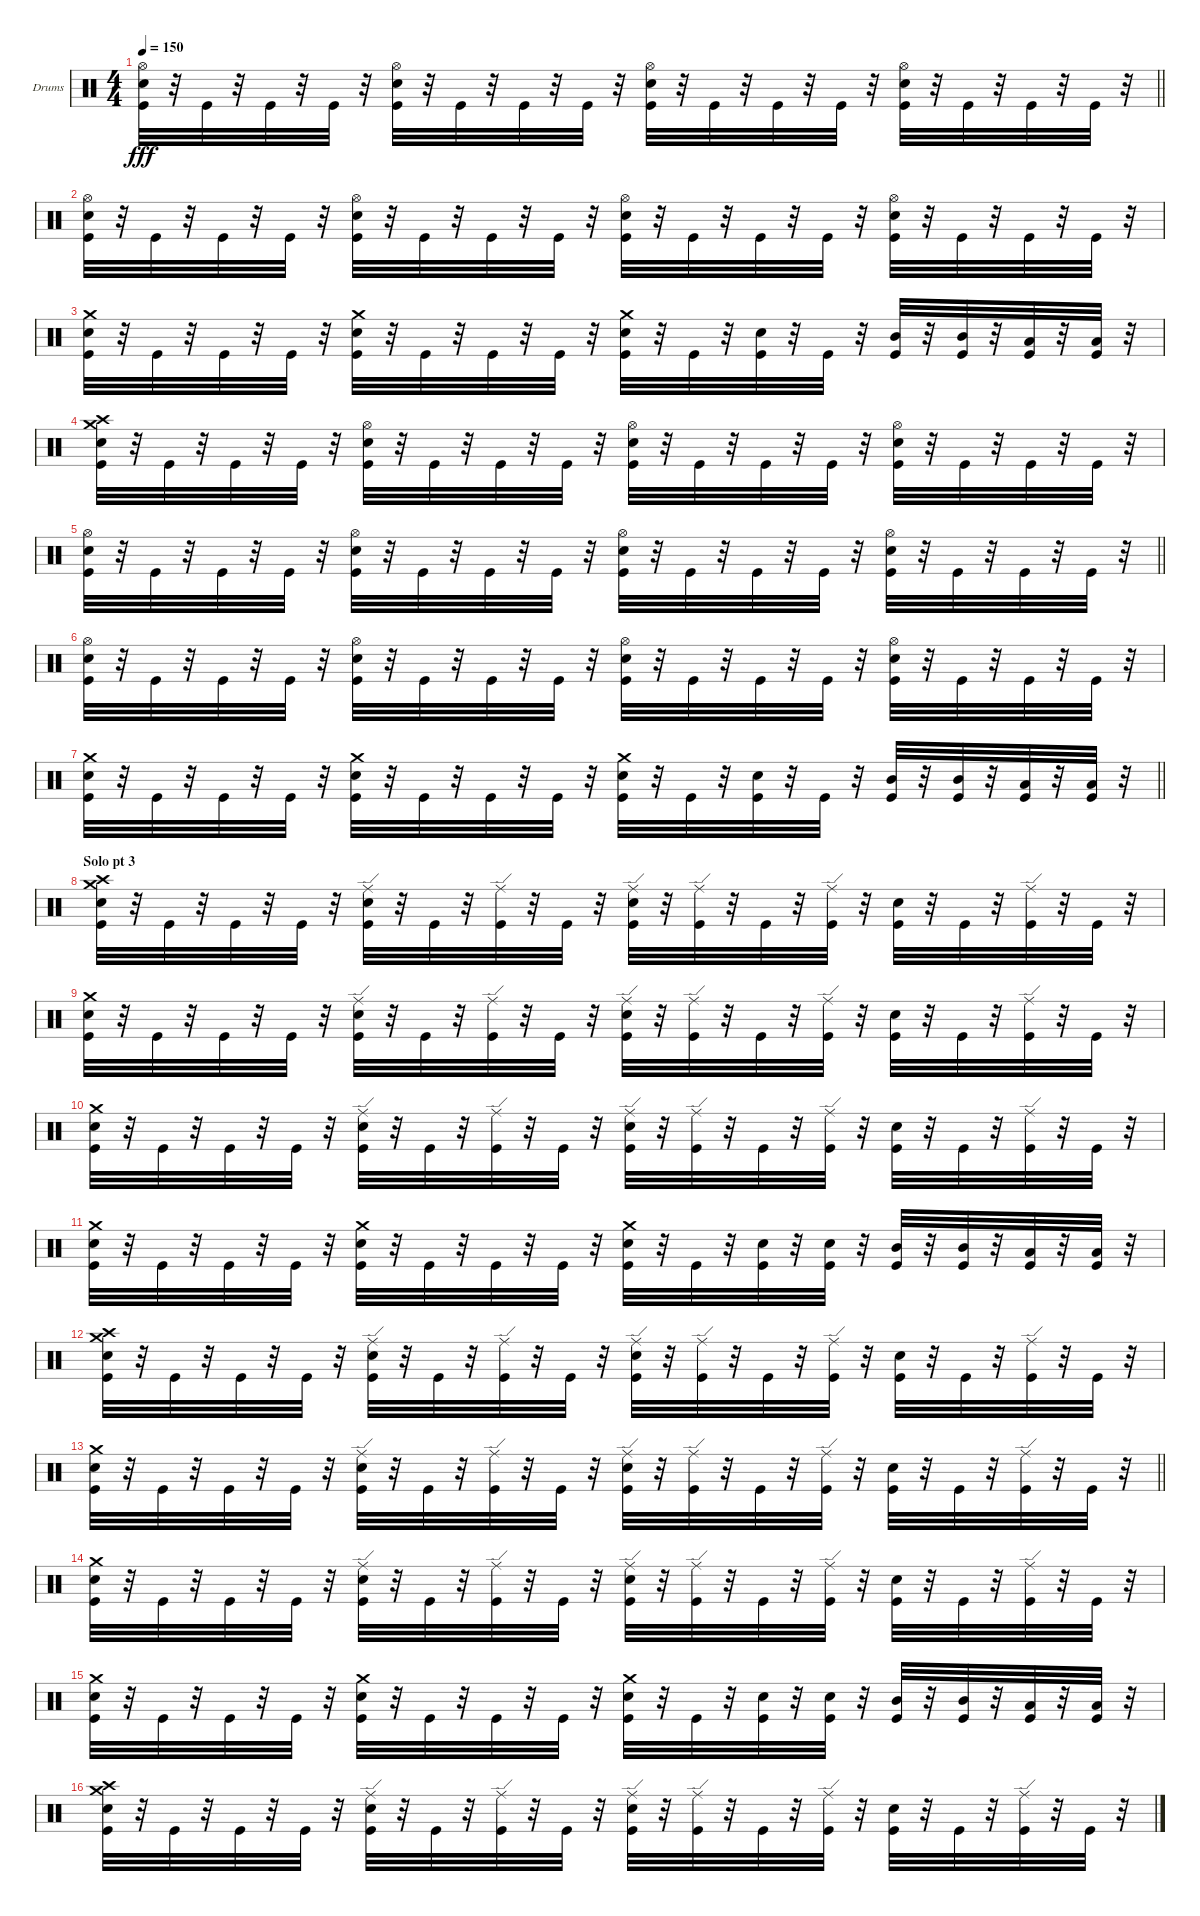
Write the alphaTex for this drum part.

\bracketExtendMode groupsimilarinstruments
\firstSystemTrackNameOrientation horizontal
\otherSystemsTrackNameOrientation horizontal
\track ("Dave McClain" "Drums") {mute instrument percussion}
\staff {score}
\articulation defaults
\ts (4 4)
\tempo 150
\clef neutral
\barLineRight lightlight
\ks c
("Hi-Hat (open)" "Snare (hit) 2" "Kick (hit)").32{dy fff} r.32 "Kick (hit)".32 r.32 "Kick (hit)".32 r.32 "Kick (hit)".32 r.32 ("Hi-Hat (open)" "Snare (hit) 2" "Kick (hit)").32 r.32 "Kick (hit)".32 r.32 "Kick (hit)".32 r.32 "Kick (hit)".32 r.32 ("Hi-Hat (open)" "Snare (hit) 2" "Kick (hit)").32 r.32 "Kick (hit)".32 r.32 "Kick (hit)".32 r.32 "Kick (hit)".32 r.32 ("Hi-Hat (open)" "Snare (hit) 2" "Kick (hit)").32 r.32 "Kick (hit)".32 r.32 "Kick (hit)".32 r.32 "Kick (hit)".32 r.32 |
("Hi-Hat (open)" "Snare (hit) 2" "Kick (hit)").32 r.32 "Kick (hit)".32 r.32 "Kick (hit)".32 r.32 "Kick (hit)".32 r.32 ("Hi-Hat (open)" "Snare (hit) 2" "Kick (hit)").32 r.32 "Kick (hit)".32 r.32 "Kick (hit)".32 r.32 "Kick (hit)".32 r.32 ("Hi-Hat (open)" "Snare (hit) 2" "Kick (hit)").32 r.32 "Kick (hit)".32 r.32 "Kick (hit)".32 r.32 "Kick (hit)".32 r.32 ("Hi-Hat (open)" "Snare (hit) 2" "Kick (hit)").32 r.32 "Kick (hit)".32 r.32 "Kick (hit)".32 r.32 "Kick (hit)".32 r.32 |
("Crash medium (hit)" "Snare (hit) 2" "Kick (hit)").32 r.32 "Kick (hit)".32 r.32 "Kick (hit)".32 r.32 "Kick (hit)".32 r.32 ("Crash medium (hit)" "Snare (hit) 2" "Kick (hit)").32 r.32 "Kick (hit)".32 r.32 "Kick (hit)".32 r.32 "Kick (hit)".32 r.32 ("Snare (hit) 2" "Crash medium (hit)" "Kick (hit)").32 r.32 "Kick (hit)".32 r.32 ("Snare (hit) 2" "Kick (hit)").32 r.32 "Kick (hit)".32 r.32 ("Mid Tom (hit)" "Kick (hit)").32 r.32 ("Mid Tom (hit)" "Kick (hit)").32 r.32 ("Low Tom (hit)" "Kick (hit)").32 r.32 ("Low Tom (hit)" "Kick (hit)").32 r.32 |
("Snare (hit) 2" "Crash medium (hit)" "Crash high (hit)" "Kick (hit)").32 r.32 "Kick (hit)".32 r.32 "Kick (hit)".32 r.32 "Kick (hit)".32 r.32 ("Hi-Hat (open)" "Snare (hit) 2" "Kick (hit)").32 r.32 "Kick (hit)".32 r.32 "Kick (hit)".32 r.32 "Kick (hit)".32 r.32 ("Hi-Hat (open)" "Snare (hit) 2" "Kick (hit)").32 r.32 "Kick (hit)".32 r.32 "Kick (hit)".32 r.32 "Kick (hit)".32 r.32 ("Hi-Hat (open)" "Snare (hit) 2" "Kick (hit)").32 r.32 "Kick (hit)".32 r.32 "Kick (hit)".32 r.32 "Kick (hit)".32 r.32 |
\barLineRight lightlight
("Hi-Hat (open)" "Snare (hit) 2" "Kick (hit)").32 r.32 "Kick (hit)".32 r.32 "Kick (hit)".32 r.32 "Kick (hit)".32 r.32 ("Hi-Hat (open)" "Snare (hit) 2" "Kick (hit)").32 r.32 "Kick (hit)".32 r.32 "Kick (hit)".32 r.32 "Kick (hit)".32 r.32 ("Hi-Hat (open)" "Snare (hit) 2" "Kick (hit)").32 r.32 "Kick (hit)".32 r.32 "Kick (hit)".32 r.32 "Kick (hit)".32 r.32 ("Hi-Hat (open)" "Snare (hit) 2" "Kick (hit)").32 r.32 "Kick (hit)".32 r.32 "Kick (hit)".32 r.32 "Kick (hit)".32 r.32 |
("Hi-Hat (open)" "Snare (hit) 2" "Kick (hit)").32 r.32 "Kick (hit)".32 r.32 "Kick (hit)".32 r.32 "Kick (hit)".32 r.32 ("Hi-Hat (open)" "Snare (hit) 2" "Kick (hit)").32 r.32 "Kick (hit)".32 r.32 "Kick (hit)".32 r.32 "Kick (hit)".32 r.32 ("Hi-Hat (open)" "Snare (hit) 2" "Kick (hit)").32 r.32 "Kick (hit)".32 r.32 "Kick (hit)".32 r.32 "Kick (hit)".32 r.32 ("Hi-Hat (open)" "Snare (hit) 2" "Kick (hit)").32 r.32 "Kick (hit)".32 r.32 "Kick (hit)".32 r.32 "Kick (hit)".32 r.32 |
\barLineRight lightlight
("Crash medium (hit)" "Snare (hit) 2" "Kick (hit)").32 r.32 "Kick (hit)".32 r.32 "Kick (hit)".32 r.32 "Kick (hit)".32 r.32 ("Crash medium (hit)" "Snare (hit) 2" "Kick (hit)").32 r.32 "Kick (hit)".32 r.32 "Kick (hit)".32 r.32 "Kick (hit)".32 r.32 ("Snare (hit) 2" "Crash medium (hit)" "Kick (hit)").32 r.32 "Kick (hit)".32 r.32 ("Snare (hit) 2" "Kick (hit)").32 r.32 "Kick (hit)".32 r.32 ("Mid Tom (hit)" "Kick (hit)").32 r.32 ("Mid Tom (hit)" "Kick (hit)").32 r.32 ("Low Tom (hit)" "Kick (hit)").32 r.32 ("Low Tom (hit)" "Kick (hit)").32 r.32 |
\section ("" "Solo pt 3")
("Snare (hit) 2" "Crash medium (hit)" "Crash high (hit)" "Kick (hit)").32 r.32 "Kick (hit)".32 r.32 "Kick (hit)".32 r.32 "Kick (hit)".32 r.32 ("Ride (edge)" "Snare (hit) 2" "Kick (hit)").32 r.32 "Kick (hit)".32 r.32 ("Ride (edge)" "Kick (hit)").32 r.32 "Kick (hit)".32 r.32 ("Ride (edge)" "Snare (hit) 2" "Kick (hit)").32 r.32 ("Ride (edge)" "Kick (hit)").32 r.32 "Kick (hit)".32 r.32 ("Ride (edge)" "Kick (hit)").32 r.32 ("Snare (hit) 2" "Kick (hit)").32 r.32 "Kick (hit)".32 r.32 ("Ride (edge)" "Kick (hit)").32 r.32 "Kick (hit)".32 r.32 |
("Crash medium (hit)" "Snare (hit) 2" "Kick (hit)").32 r.32 "Kick (hit)".32 r.32 "Kick (hit)".32 r.32 "Kick (hit)".32 r.32 ("Ride (edge)" "Snare (hit) 2" "Kick (hit)").32 r.32 "Kick (hit)".32 r.32 ("Ride (edge)" "Kick (hit)").32 r.32 "Kick (hit)".32 r.32 ("Ride (edge)" "Snare (hit) 2" "Kick (hit)").32 r.32 ("Ride (edge)" "Kick (hit)").32 r.32 "Kick (hit)".32 r.32 ("Ride (edge)" "Kick (hit)").32 r.32 ("Snare (hit) 2" "Kick (hit)").32 r.32 "Kick (hit)".32 r.32 ("Ride (edge)" "Kick (hit)").32 r.32 "Kick (hit)".32 r.32 |
("Crash medium (hit)" "Snare (hit) 2" "Kick (hit)").32 r.32 "Kick (hit)".32 r.32 "Kick (hit)".32 r.32 "Kick (hit)".32 r.32 ("Ride (edge)" "Snare (hit) 2" "Kick (hit)").32 r.32 "Kick (hit)".32 r.32 ("Ride (edge)" "Kick (hit)").32 r.32 "Kick (hit)".32 r.32 ("Ride (edge)" "Snare (hit) 2" "Kick (hit)").32 r.32 ("Ride (edge)" "Kick (hit)").32 r.32 "Kick (hit)".32 r.32 ("Ride (edge)" "Kick (hit)").32 r.32 ("Snare (hit) 2" "Kick (hit)").32 r.32 "Kick (hit)".32 r.32 ("Ride (edge)" "Kick (hit)").32 r.32 "Kick (hit)".32 r.32 |
("Crash medium (hit)" "Snare (hit) 2" "Kick (hit)").32 r.32 "Kick (hit)".32 r.32 "Kick (hit)".32 r.32 "Kick (hit)".32 r.32 ("Crash medium (hit)" "Snare (hit) 2" "Kick (hit)").32 r.32 "Kick (hit)".32 r.32 "Kick (hit)".32 r.32 "Kick (hit)".32 r.32 ("Snare (hit) 2" "Crash medium (hit)" "Kick (hit)").32 r.32 "Kick (hit)".32 r.32 ("Snare (hit) 2" "Kick (hit)").32 r.32 ("Snare (hit) 2" "Kick (hit)").32 r.32 ("Mid Tom (hit)" "Kick (hit)").32 r.32 ("Mid Tom (hit)" "Kick (hit)").32 r.32 ("Low Tom (hit)" "Kick (hit)").32 r.32 ("Low Tom (hit)" "Kick (hit)").32 r.32 |
("Snare (hit) 2" "Crash medium (hit)" "Crash high (hit)" "Kick (hit)").32 r.32 "Kick (hit)".32 r.32 "Kick (hit)".32 r.32 "Kick (hit)".32 r.32 ("Ride (edge)" "Snare (hit) 2" "Kick (hit)").32 r.32 "Kick (hit)".32 r.32 ("Ride (edge)" "Kick (hit)").32 r.32 "Kick (hit)".32 r.32 ("Ride (edge)" "Snare (hit) 2" "Kick (hit)").32 r.32 ("Ride (edge)" "Kick (hit)").32 r.32 "Kick (hit)".32 r.32 ("Ride (edge)" "Kick (hit)").32 r.32 ("Snare (hit) 2" "Kick (hit)").32 r.32 "Kick (hit)".32 r.32 ("Ride (edge)" "Kick (hit)").32 r.32 "Kick (hit)".32 r.32 |
\barLineRight lightlight
("Crash medium (hit)" "Snare (hit) 2" "Kick (hit)").32 r.32 "Kick (hit)".32 r.32 "Kick (hit)".32 r.32 "Kick (hit)".32 r.32 ("Ride (edge)" "Snare (hit) 2" "Kick (hit)").32 r.32 "Kick (hit)".32 r.32 ("Ride (edge)" "Kick (hit)").32 r.32 "Kick (hit)".32 r.32 ("Ride (edge)" "Snare (hit) 2" "Kick (hit)").32 r.32 ("Ride (edge)" "Kick (hit)").32 r.32 "Kick (hit)".32 r.32 ("Ride (edge)" "Kick (hit)").32 r.32 ("Snare (hit) 2" "Kick (hit)").32 r.32 "Kick (hit)".32 r.32 ("Ride (edge)" "Kick (hit)").32 r.32 "Kick (hit)".32 r.32 |
("Crash medium (hit)" "Snare (hit) 2" "Kick (hit)").32 r.32 "Kick (hit)".32 r.32 "Kick (hit)".32 r.32 "Kick (hit)".32 r.32 ("Ride (edge)" "Snare (hit) 2" "Kick (hit)").32 r.32 "Kick (hit)".32 r.32 ("Ride (edge)" "Kick (hit)").32 r.32 "Kick (hit)".32 r.32 ("Ride (edge)" "Snare (hit) 2" "Kick (hit)").32 r.32 ("Ride (edge)" "Kick (hit)").32 r.32 "Kick (hit)".32 r.32 ("Ride (edge)" "Kick (hit)").32 r.32 ("Snare (hit) 2" "Kick (hit)").32 r.32 "Kick (hit)".32 r.32 ("Ride (edge)" "Kick (hit)").32 r.32 "Kick (hit)".32 r.32 |
("Crash medium (hit)" "Snare (hit) 2" "Kick (hit)").32 r.32 "Kick (hit)".32 r.32 "Kick (hit)".32 r.32 "Kick (hit)".32 r.32 ("Crash medium (hit)" "Snare (hit) 2" "Kick (hit)").32 r.32 "Kick (hit)".32 r.32 "Kick (hit)".32 r.32 "Kick (hit)".32 r.32 ("Snare (hit) 2" "Crash medium (hit)" "Kick (hit)").32 r.32 "Kick (hit)".32 r.32 ("Snare (hit) 2" "Kick (hit)").32 r.32 ("Snare (hit) 2" "Kick (hit)").32 r.32 ("Mid Tom (hit)" "Kick (hit)").32 r.32 ("Mid Tom (hit)" "Kick (hit)").32 r.32 ("Low Tom (hit)" "Kick (hit)").32 r.32 ("Low Tom (hit)" "Kick (hit)").32 r.32 |
("Snare (hit) 2" "Crash medium (hit)" "Crash high (hit)" "Kick (hit)").32 r.32 "Kick (hit)".32 r.32 "Kick (hit)".32 r.32 "Kick (hit)".32 r.32 ("Ride (edge)" "Snare (hit) 2" "Kick (hit)").32 r.32 "Kick (hit)".32 r.32 ("Ride (edge)" "Kick (hit)").32 r.32 "Kick (hit)".32 r.32 ("Ride (edge)" "Snare (hit) 2" "Kick (hit)").32 r.32 ("Ride (edge)" "Kick (hit)").32 r.32 "Kick (hit)".32 r.32 ("Ride (edge)" "Kick (hit)").32 r.32 ("Snare (hit) 2" "Kick (hit)").32 r.32 "Kick (hit)".32 r.32 ("Ride (edge)" "Kick (hit)").32 r.32 "Kick (hit)".32 r.32
